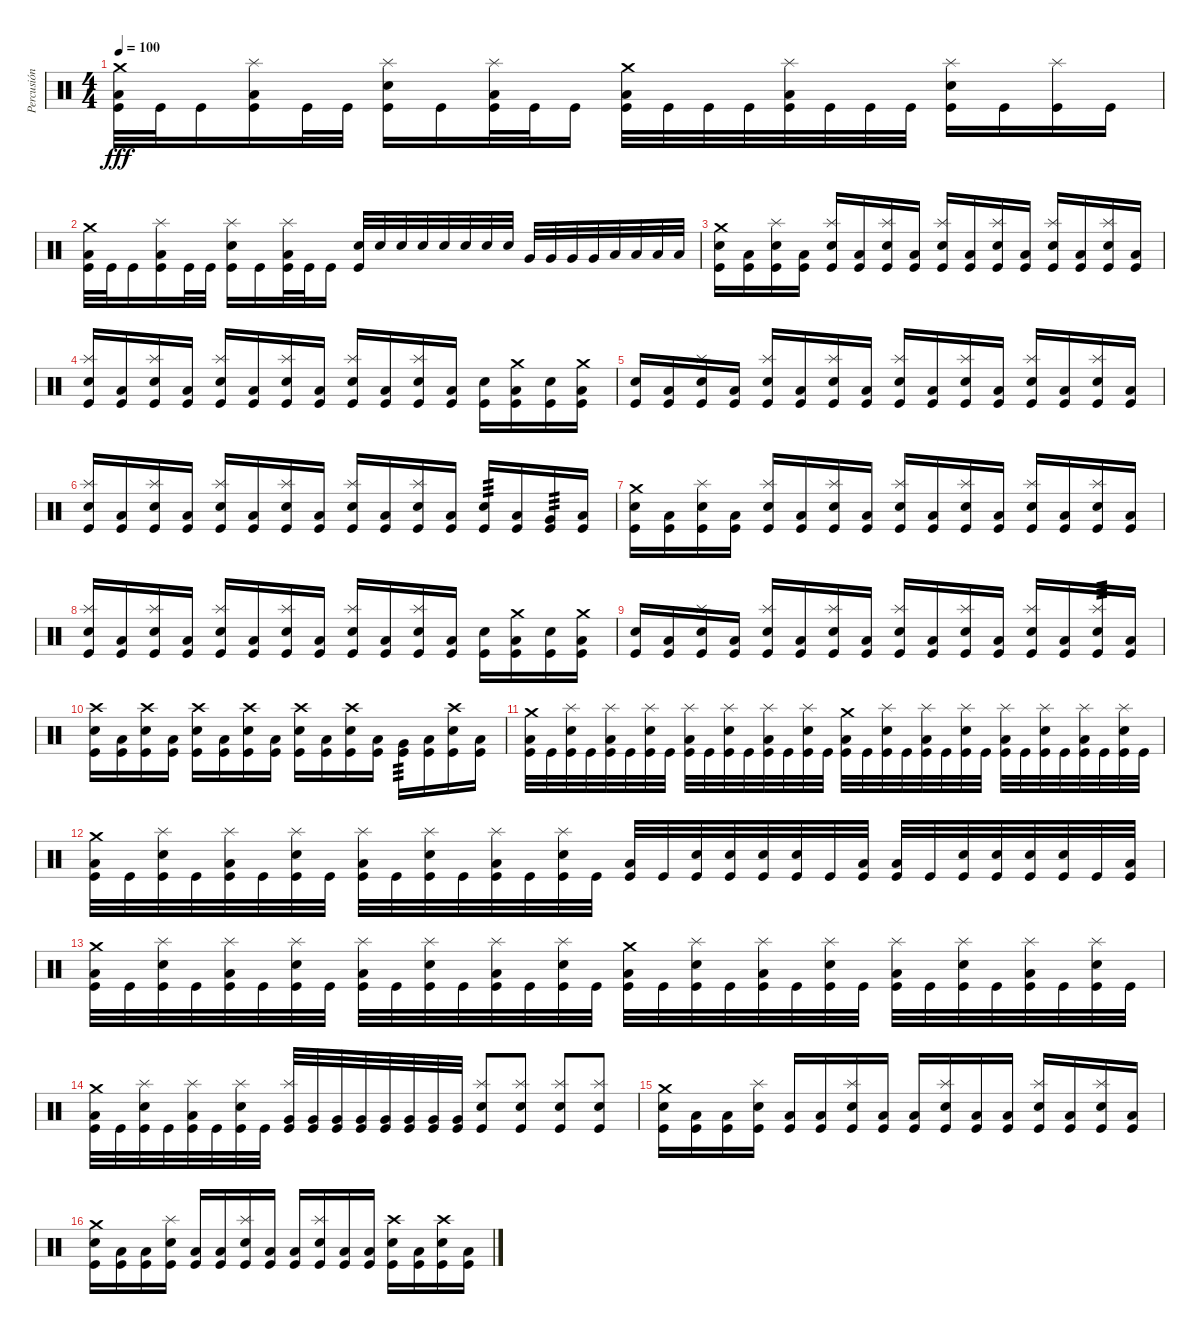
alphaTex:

\track ("Percusión" "Percusión") {instrument percussion}
\staff {score}
\articulation defaults
\ts (4 4)
\tempo 100
\clef neutral
\ks c
("Crash medium (hit)" "Low Floor Tom (hit)" "Kick (hit)").32{dy fff} "Kick (hit)".32 "Kick (hit)".16 ("Splash (hit)" "Low Floor Tom (hit)" "Kick (hit)").16 "Kick (hit)".32 "Kick (hit)".32 ("Splash (hit)" "Snare (hit) 2" "Kick (hit)").16 "Kick (hit)".16 ("Splash (hit)" "Low Floor Tom (hit)" "Kick (hit)").32 "Kick (hit)".32 "Kick (hit)".16 ("Crash medium (hit)" "Low Floor Tom (hit)" "Kick (hit)").32 "Kick (hit)".32 "Kick (hit)".32 "Kick (hit)".32 ("Splash (hit)" "Low Floor Tom (hit)" "Kick (hit)").32 "Kick (hit)".32 "Kick (hit)".32 "Kick (hit)".32 ("Splash (hit)" "Snare (hit) 2" "Kick (hit)").16 "Kick (hit)".16 ("Splash (hit)" "Kick (hit)").16 "Kick (hit)".16 |
("Crash medium (hit)" "Low Floor Tom (hit)" "Kick (hit)").32 "Kick (hit)".32 "Kick (hit)".16 ("Splash (hit)" "Low Floor Tom (hit)" "Kick (hit)").16 "Kick (hit)".32 "Kick (hit)".32 ("Splash (hit)" "Snare (hit) 2" "Kick (hit)").16 "Kick (hit)".16 ("Splash (hit)" "Low Floor Tom (hit)" "Kick (hit)").32 "Kick (hit)".32 "Kick (hit)".16 ("Snare (hit) 2" "Kick (hit)").32 "Snare (hit) 2".32 "Snare (hit) 2".32 "Snare (hit) 2".32 "Snare (hit) 2".32 "Snare (hit) 2".32 "Snare (hit) 2".32 "Snare (hit) 2".32 "Very Low Tom (hit)".32 "Very Low Tom (hit)".32 "Very Low Tom (hit)".32 "Very Low Tom (hit)".32 "Low Floor Tom (hit)".32 "Low Floor Tom (hit)".32 "Low Floor Tom (hit)".32 "Low Floor Tom (hit)".32 |
("Crash medium (hit)" "Snare (hit) 2" "Kick (hit)").16 ("Low Floor Tom (hit)" "Kick (hit)").16 ("Splash (hit)" "Snare (hit) 2" "Kick (hit)").16 ("Low Floor Tom (hit)" "Kick (hit)").16 ("Splash (hit)" "Snare (hit) 2" "Kick (hit)").16 ("Low Floor Tom (hit)" "Kick (hit)").16 ("Splash (hit)" "Snare (hit) 2" "Kick (hit)").16 ("Low Floor Tom (hit)" "Kick (hit)").16 ("Splash (hit)" "Snare (hit) 2" "Kick (hit)").16 ("Low Floor Tom (hit)" "Kick (hit)").16 ("Splash (hit)" "Snare (hit) 2" "Kick (hit)").16 ("Low Floor Tom (hit)" "Kick (hit)").16 ("Splash (hit)" "Snare (hit) 2" "Kick (hit)").16 ("Low Floor Tom (hit)" "Kick (hit)").16 ("Splash (hit)" "Snare (hit) 2" "Kick (hit)").16 ("Low Floor Tom (hit)" "Kick (hit)").16 |
("Splash (hit)" "Snare (hit) 2" "Kick (hit)").16 ("Low Floor Tom (hit)" "Kick (hit)").16 ("Splash (hit)" "Snare (hit) 2" "Kick (hit)").16 ("Low Floor Tom (hit)" "Kick (hit)").16 ("Splash (hit)" "Snare (hit) 2" "Kick (hit)").16 ("Low Floor Tom (hit)" "Kick (hit)").16 ("Splash (hit)" "Snare (hit) 2" "Kick (hit)").16 ("Low Floor Tom (hit)" "Kick (hit)").16 ("Splash (hit)" "Snare (hit) 2" "Kick (hit)").16 ("Low Floor Tom (hit)" "Kick (hit)").16 ("Splash (hit)" "Snare (hit) 2" "Kick (hit)").16 ("Low Floor Tom (hit)" "Kick (hit)").16 ("Snare (hit) 2" "Kick (hit)").16 ("Crash medium (hit)" "Low Floor Tom (hit)" "Kick (hit)").16 ("Snare (hit) 2" "Kick (hit)").16 ("Crash medium (hit)" "Low Floor Tom (hit)" "Kick (hit)").16 |
("Snare (hit) 2" "Kick (hit)").16 ("Low Floor Tom (hit)" "Kick (hit)").16 ("Splash (hit)" "Snare (hit) 2" "Kick (hit)").16 ("Low Floor Tom (hit)" "Kick (hit)").16 ("Splash (hit)" "Snare (hit) 2" "Kick (hit)").16 ("Low Floor Tom (hit)" "Kick (hit)").16 ("Splash (hit)" "Snare (hit) 2" "Kick (hit)").16 ("Low Floor Tom (hit)" "Kick (hit)").16 ("Splash (hit)" "Snare (hit) 2" "Kick (hit)").16 ("Low Floor Tom (hit)" "Kick (hit)").16 ("Splash (hit)" "Snare (hit) 2" "Kick (hit)").16 ("Low Floor Tom (hit)" "Kick (hit)").16 ("Splash (hit)" "Snare (hit) 2" "Kick (hit)").16 ("Low Floor Tom (hit)" "Kick (hit)").16 ("Splash (hit)" "Snare (hit) 2" "Kick (hit)").16 ("Low Floor Tom (hit)" "Kick (hit)").16 |
("Splash (hit)" "Snare (hit) 2" "Kick (hit)").16 ("Low Floor Tom (hit)" "Kick (hit)").16 ("Splash (hit)" "Snare (hit) 2" "Kick (hit)").16 ("Low Floor Tom (hit)" "Kick (hit)").16 ("Splash (hit)" "Snare (hit) 2" "Kick (hit)").16 ("Low Floor Tom (hit)" "Kick (hit)").16 ("Splash (hit)" "Snare (hit) 2" "Kick (hit)").16 ("Low Floor Tom (hit)" "Kick (hit)").16 ("Splash (hit)" "Snare (hit) 2" "Kick (hit)").16 ("Low Floor Tom (hit)" "Kick (hit)").16 ("Splash (hit)" "Snare (hit) 2" "Kick (hit)").16 ("Low Floor Tom (hit)" "Kick (hit)").16 ("Snare (hit) 2" "Kick (hit)").16{tp 3} ("Low Floor Tom (hit)" "Kick (hit)").16 ("Very Low Tom (hit)" "Kick (hit)").16{tp 3} ("Low Floor Tom (hit)" "Kick (hit)").16 |
("Crash medium (hit)" "Snare (hit) 2" "Kick (hit)").16 ("Low Floor Tom (hit)" "Kick (hit)").16 ("Splash (hit)" "Snare (hit) 2" "Kick (hit)").16 ("Low Floor Tom (hit)" "Kick (hit)").16 ("Splash (hit)" "Snare (hit) 2" "Kick (hit)").16 ("Low Floor Tom (hit)" "Kick (hit)").16 ("Splash (hit)" "Snare (hit) 2" "Kick (hit)").16 ("Low Floor Tom (hit)" "Kick (hit)").16 ("Splash (hit)" "Snare (hit) 2" "Kick (hit)").16 ("Low Floor Tom (hit)" "Kick (hit)").16 ("Splash (hit)" "Snare (hit) 2" "Kick (hit)").16 ("Low Floor Tom (hit)" "Kick (hit)").16 ("Splash (hit)" "Snare (hit) 2" "Kick (hit)").16 ("Low Floor Tom (hit)" "Kick (hit)").16 ("Splash (hit)" "Snare (hit) 2" "Kick (hit)").16 ("Low Floor Tom (hit)" "Kick (hit)").16 |
("Splash (hit)" "Snare (hit) 2" "Kick (hit)").16 ("Low Floor Tom (hit)" "Kick (hit)").16 ("Splash (hit)" "Snare (hit) 2" "Kick (hit)").16 ("Low Floor Tom (hit)" "Kick (hit)").16 ("Splash (hit)" "Snare (hit) 2" "Kick (hit)").16 ("Low Floor Tom (hit)" "Kick (hit)").16 ("Splash (hit)" "Snare (hit) 2" "Kick (hit)").16 ("Low Floor Tom (hit)" "Kick (hit)").16 ("Splash (hit)" "Snare (hit) 2" "Kick (hit)").16 ("Low Floor Tom (hit)" "Kick (hit)").16 ("Splash (hit)" "Snare (hit) 2" "Kick (hit)").16 ("Low Floor Tom (hit)" "Kick (hit)").16 ("Snare (hit) 2" "Kick (hit)").16 ("Crash medium (hit)" "Low Floor Tom (hit)" "Kick (hit)").16 ("Snare (hit) 2" "Kick (hit)").16 ("Crash medium (hit)" "Low Floor Tom (hit)" "Kick (hit)").16 |
("Snare (hit) 2" "Kick (hit)").16 ("Low Floor Tom (hit)" "Kick (hit)").16 ("Splash (hit)" "Snare (hit) 2" "Kick (hit)").16 ("Low Floor Tom (hit)" "Kick (hit)").16 ("Splash (hit)" "Snare (hit) 2" "Kick (hit)").16 ("Low Floor Tom (hit)" "Kick (hit)").16 ("Splash (hit)" "Snare (hit) 2" "Kick (hit)").16 ("Low Floor Tom (hit)" "Kick (hit)").16 ("Splash (hit)" "Snare (hit) 2" "Kick (hit)").16 ("Low Floor Tom (hit)" "Kick (hit)").16 ("Splash (hit)" "Snare (hit) 2" "Kick (hit)").16 ("Low Floor Tom (hit)" "Kick (hit)").16 ("Splash (hit)" "Snare (hit) 2" "Kick (hit)").16 ("Low Floor Tom (hit)" "Kick (hit)").16 ("Splash (hit)" "Snare (hit) 2" "Kick (hit)").16{tp 3} ("Low Floor Tom (hit)" "Kick (hit)").16 |
("Crash high (hit)" "Snare (hit) 2" "Kick (hit)").16 ("Low Floor Tom (hit)" "Kick (hit)").16 ("Crash high (hit)" "Snare (hit) 2" "Kick (hit)").16 ("Low Floor Tom (hit)" "Kick (hit)").16 ("Crash high (hit)" "Snare (hit) 2" "Kick (hit)").16 ("Low Floor Tom (hit)" "Kick (hit)").16 ("Crash high (hit)" "Snare (hit) 2" "Kick (hit)").16 ("Low Floor Tom (hit)" "Kick (hit)").16 ("Crash high (hit)" "Snare (hit) 2" "Kick (hit)").16 ("Low Floor Tom (hit)" "Kick (hit)").16 ("Crash high (hit)" "Snare (hit) 2" "Kick (hit)").16 ("Low Floor Tom (hit)" "Kick (hit)").16 ("Very Low Tom (hit)" "Kick (hit)").16{tp 3} ("Low Floor Tom (hit)" "Kick (hit)").16 ("Crash high (hit)" "Snare (hit) 2" "Kick (hit)").16 ("Low Floor Tom (hit)" "Kick (hit)").16 |
("Crash medium (hit)" "Low Floor Tom (hit)" "Kick (hit)").32 "Kick (hit)".32 ("Splash (hit)" "Snare (hit) 2" "Kick (hit)").32 "Kick (hit)".32 ("Splash (hit)" "Low Floor Tom (hit)" "Kick (hit)").32 "Kick (hit)".32 ("Splash (hit)" "Snare (hit) 2" "Kick (hit)").32 "Kick (hit)".32 ("Splash (hit)" "Low Floor Tom (hit)" "Kick (hit)").32 "Kick (hit)".32 ("Splash (hit)" "Snare (hit) 2" "Kick (hit)").32 "Kick (hit)".32 ("Splash (hit)" "Low Floor Tom (hit)" "Kick (hit)").32 "Kick (hit)".32 ("Splash (hit)" "Snare (hit) 2" "Kick (hit)").32 "Kick (hit)".32 ("Crash medium (hit)" "Low Floor Tom (hit)" "Kick (hit)").32 "Kick (hit)".32 ("Splash (hit)" "Snare (hit) 2" "Kick (hit)").32 "Kick (hit)".32 ("Splash (hit)" "Low Floor Tom (hit)" "Kick (hit)").32 "Kick (hit)".32 ("Splash (hit)" "Snare (hit) 2" "Kick (hit)").32 "Kick (hit)".32 ("Splash (hit)" "Low Floor Tom (hit)" "Kick (hit)").32 "Kick (hit)".32 ("Splash (hit)" "Snare (hit) 2" "Kick (hit)").32 "Kick (hit)".32 ("Splash (hit)" "Low Floor Tom (hit)" "Kick (hit)").32 "Kick (hit)".32 ("Splash (hit)" "Snare (hit) 2" "Kick (hit)").32 "Kick (hit)".32 |
("Crash medium (hit)" "Low Floor Tom (hit)" "Kick (hit)").32 "Kick (hit)".32 ("Splash (hit)" "Snare (hit) 2" "Kick (hit)").32 "Kick (hit)".32 ("Splash (hit)" "Low Floor Tom (hit)" "Kick (hit)").32 "Kick (hit)".32 ("Splash (hit)" "Snare (hit) 2" "Kick (hit)").32 "Kick (hit)".32 ("Splash (hit)" "Low Floor Tom (hit)" "Kick (hit)").32 "Kick (hit)".32 ("Splash (hit)" "Snare (hit) 2" "Kick (hit)").32 "Kick (hit)".32 ("Splash (hit)" "Low Floor Tom (hit)" "Kick (hit)").32 "Kick (hit)".32 ("Splash (hit)" "Snare (hit) 2" "Kick (hit)").32 "Kick (hit)".32 ("Low Floor Tom (hit)" "Kick (hit)").32 "Kick (hit)".32 ("Snare (hit) 2" "Kick (hit)").32 ("Snare (hit) 2" "Kick (hit)").32 ("Snare (hit) 2" "Kick (hit)").32 ("Snare (hit) 2" "Kick (hit)").32 "Kick (hit)".32 ("Low Floor Tom (hit)" "Kick (hit)").32 ("Low Floor Tom (hit)" "Kick (hit)").32 "Kick (hit)".32 ("Snare (hit) 2" "Kick (hit)").32 ("Snare (hit) 2" "Kick (hit)").32 ("Snare (hit) 2" "Kick (hit)").32 ("Snare (hit) 2" "Kick (hit)").32 "Kick (hit)".32 ("Low Floor Tom (hit)" "Kick (hit)").32 |
("Crash medium (hit)" "Low Floor Tom (hit)" "Kick (hit)").32 "Kick (hit)".32 ("Splash (hit)" "Snare (hit) 2" "Kick (hit)").32 "Kick (hit)".32 ("Splash (hit)" "Low Floor Tom (hit)" "Kick (hit)").32 "Kick (hit)".32 ("Splash (hit)" "Snare (hit) 2" "Kick (hit)").32 "Kick (hit)".32 ("Splash (hit)" "Low Floor Tom (hit)" "Kick (hit)").32 "Kick (hit)".32 ("Splash (hit)" "Snare (hit) 2" "Kick (hit)").32 "Kick (hit)".32 ("Splash (hit)" "Low Floor Tom (hit)" "Kick (hit)").32 "Kick (hit)".32 ("Splash (hit)" "Snare (hit) 2" "Kick (hit)").32 "Kick (hit)".32 ("Crash medium (hit)" "Low Floor Tom (hit)" "Kick (hit)").32 "Kick (hit)".32 ("Splash (hit)" "Snare (hit) 2" "Kick (hit)").32 "Kick (hit)".32 ("Splash (hit)" "Low Floor Tom (hit)" "Kick (hit)").32 "Kick (hit)".32 ("Splash (hit)" "Snare (hit) 2" "Kick (hit)").32 "Kick (hit)".32 ("Splash (hit)" "Low Floor Tom (hit)" "Kick (hit)").32 "Kick (hit)".32 ("Splash (hit)" "Snare (hit) 2" "Kick (hit)").32 "Kick (hit)".32 ("Splash (hit)" "Low Floor Tom (hit)" "Kick (hit)").32 "Kick (hit)".32 ("Splash (hit)" "Snare (hit) 2" "Kick (hit)").32 "Kick (hit)".32 |
("Crash medium (hit)" "Low Floor Tom (hit)" "Kick (hit)").32 "Kick (hit)".32 ("Splash (hit)" "Snare (hit) 2" "Kick (hit)").32 "Kick (hit)".32 ("Splash (hit)" "Low Floor Tom (hit)" "Kick (hit)").32 "Kick (hit)".32 ("Splash (hit)" "Snare (hit) 2" "Kick (hit)").32 "Kick (hit)".32 ("Splash (hit)" "Very Low Tom (hit)" "Kick (hit)").32 ("Very Low Tom (hit)" "Kick (hit)").32 ("Very Low Tom (hit)" "Kick (hit)").32 ("Very Low Tom (hit)" "Kick (hit)").32 ("Very Low Tom (hit)" "Kick (hit)").32 ("Very Low Tom (hit)" "Kick (hit)").32 ("Very Low Tom (hit)" "Kick (hit)").32 ("Very Low Tom (hit)" "Kick (hit)").32 ("Splash (hit)" "Snare (hit) 2" "Kick (hit)").8 ("Splash (hit)" "Snare (hit) 2" "Kick (hit)").8 ("Splash (hit)" "Snare (hit) 2" "Kick (hit)").8 ("Splash (hit)" "Snare (hit) 2" "Kick (hit)").8 |
("Crash medium (hit)" "Snare (hit) 2" "Kick (hit)").16 ("Low Floor Tom (hit)" "Kick (hit)").16 ("Low Floor Tom (hit)" "Kick (hit)").16 ("Splash (hit)" "Snare (hit) 2" "Kick (hit)").16 ("Low Floor Tom (hit)" "Kick (hit)").16 ("Low Floor Tom (hit)" "Kick (hit)").16 ("Splash (hit)" "Snare (hit) 2" "Kick (hit)").16 ("Low Floor Tom (hit)" "Kick (hit)").16 ("Low Floor Tom (hit)" "Kick (hit)").16 ("Splash (hit)" "Snare (hit) 2" "Kick (hit)").16 ("Low Floor Tom (hit)" "Kick (hit)").16 ("Low Floor Tom (hit)" "Kick (hit)").16 ("Splash (hit)" "Snare (hit) 2" "Kick (hit)").16 ("Low Floor Tom (hit)" "Kick (hit)").16 ("Splash (hit)" "Snare (hit) 2" "Kick (hit)").16 ("Low Floor Tom (hit)" "Kick (hit)").16 |
("Crash medium (hit)" "Snare (hit) 2" "Kick (hit)").16 ("Low Floor Tom (hit)" "Kick (hit)").16 ("Low Floor Tom (hit)" "Kick (hit)").16 ("Splash (hit)" "Snare (hit) 2" "Kick (hit)").16 ("Low Floor Tom (hit)" "Kick (hit)").16 ("Low Floor Tom (hit)" "Kick (hit)").16 ("Splash (hit)" "Snare (hit) 2" "Kick (hit)").16 ("Low Floor Tom (hit)" "Kick (hit)").16 ("Low Floor Tom (hit)" "Kick (hit)").16 ("Splash (hit)" "Snare (hit) 2" "Kick (hit)").16 ("Low Floor Tom (hit)" "Kick (hit)").16 ("Low Floor Tom (hit)" "Kick (hit)").16 ("Crash high (hit)" "Snare (hit) 2" "Kick (hit)").16 ("Low Floor Tom (hit)" "Kick (hit)").16 ("Crash high (hit)" "Snare (hit) 2" "Kick (hit)").16 ("Low Floor Tom (hit)" "Kick (hit)").16
